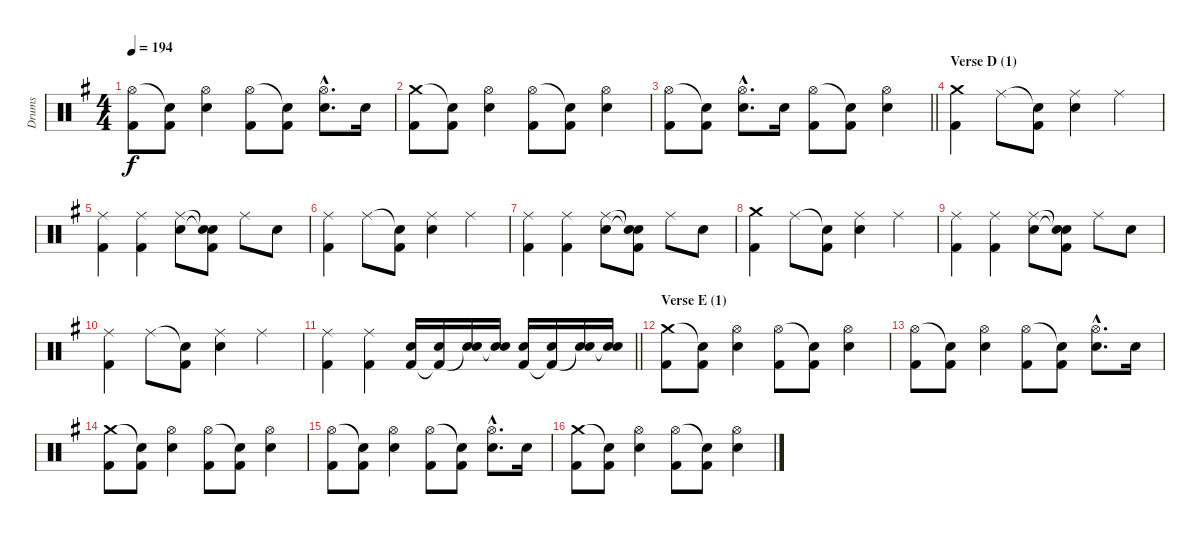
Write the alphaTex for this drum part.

\track ("Drums" "Drums") {instrument percussion}
\staff {score}
\articulation defaults
\ts (4 4)
\tempo 194
\clef neutral
\ks eminor
("Hi-Hat (open)" "Kick (hit) 2").8{dy f} ("Snare (hit)"{t} "Kick (hit) 2").8 ("Hi-Hat (open)" "Electric Snare (hit)").4 ("Hi-Hat (open)" "Kick (hit) 2").8 ("Snare (hit)"{t} "Kick (hit) 2").8 ("Hi-Hat (open)"{hac} "Electric Snare (hit)"{hac}).8{d} "Electric Snare (hit)".16 |
("Crash medium (hit)" "Kick (hit) 2").8 ("Snare (hit)"{t} "Kick (hit) 2").8 ("Hi-Hat (open)" "Electric Snare (hit)").4 ("Hi-Hat (open)" "Kick (hit) 2").8 ("Snare (hit)"{t} "Kick (hit) 2").8 ("Hi-Hat (open)" "Electric Snare (hit)").4 |
\barLineRight lightlight
("Hi-Hat (open)" "Kick (hit) 2").8 ("Snare (hit)"{t} "Kick (hit) 2").8 ("Hi-Hat (open)"{hac} "Electric Snare (hit)"{hac}).8{d} "Electric Snare (hit)".16 ("Hi-Hat (open)" "Kick (hit) 2").8 ("Snare (hit)"{t} "Kick (hit) 2").8 ("Hi-Hat (open)" "Electric Snare (hit)").4 |
\section ("" "Verse D (1)")
("Crash medium (hit)" "Kick (hit) 2").4 "Ride (middle)".8 ("Snare (hit)"{t} "Kick (hit) 2").8 ("Ride (middle)" "Electric Snare (hit)").4 "Ride (middle)".4 |
("Ride (middle)" "Kick (hit) 2").4 ("Ride (middle)" "Kick (hit) 2").4 ("Ride (middle)" "Electric Snare (hit)").8 ("Snare (hit)"{t} "Snare (hit)"{t} "Kick (hit) 2").8 "Ride (middle)".8 "Electric Snare (hit)".8 |
("Ride (middle)" "Kick (hit) 2").4 "Ride (middle)".8 ("Snare (hit)"{t} "Kick (hit) 2").8 ("Ride (middle)" "Electric Snare (hit)").4 "Ride (middle)".4 |
("Ride (middle)" "Kick (hit) 2").4 ("Ride (middle)" "Kick (hit) 2").4 ("Ride (middle)" "Electric Snare (hit)").8 ("Snare (hit)"{t} "Snare (hit)"{t} "Kick (hit) 2").8 "Ride (middle)".8 "Electric Snare (hit)".8 |
("Crash medium (hit)" "Kick (hit) 2").4 "Ride (middle)".8 ("Snare (hit)"{t} "Kick (hit) 2").8 ("Ride (middle)" "Electric Snare (hit)").4 "Ride (middle)".4 |
("Ride (middle)" "Kick (hit) 2").4 ("Ride (middle)" "Kick (hit) 2").4 ("Ride (middle)" "Electric Snare (hit)").8 ("Snare (hit)"{t} "Snare (hit)"{t} "Kick (hit) 2").8 "Ride (middle)".8 "Electric Snare (hit)".8 |
("Ride (middle)" "Kick (hit) 2").4 "Ride (middle)".8 ("Snare (hit)"{t} "Kick (hit) 2").8 ("Ride (middle)" "Electric Snare (hit)").4 "Ride (middle)".4 |
\barLineRight lightlight
("Ride (middle)" "Kick (hit) 2").4 ("Ride (middle)" "Kick (hit) 2").4 ("Electric Snare (hit)" "Kick (hit) 2").16 ("Electric Snare (hit)" "Kick (hit) 2"{t}).16 ("Electric Snare (hit)" "Snare (hit)"{t}).16 ("Electric Snare (hit)" "Snare (hit)"{t}).16 ("Electric Snare (hit)" "Kick (hit) 2").16 ("Electric Snare (hit)" "Kick (hit) 2"{t}).16 ("Electric Snare (hit)" "Snare (hit)"{t}).16 ("Electric Snare (hit)" "Snare (hit)"{t}).16 |
\section ("" "Verse E (1)")
("Crash medium (hit)" "Kick (hit) 2").8 ("Snare (hit)"{t} "Kick (hit) 2").8 ("Hi-Hat (open)" "Electric Snare (hit)").4 ("Hi-Hat (open)" "Kick (hit) 2").8 ("Snare (hit)"{t} "Kick (hit) 2").8 ("Hi-Hat (open)" "Electric Snare (hit)").4 |
("Hi-Hat (open)" "Kick (hit) 2").8 ("Snare (hit)"{t} "Kick (hit) 2").8 ("Hi-Hat (open)" "Electric Snare (hit)").4 ("Hi-Hat (open)" "Kick (hit) 2").8 ("Snare (hit)"{t} "Kick (hit) 2").8 ("Hi-Hat (open)"{hac} "Electric Snare (hit)"{hac}).8{d} "Electric Snare (hit)".16 |
("Crash medium (hit)" "Kick (hit) 2").8 ("Snare (hit)"{t} "Kick (hit) 2").8 ("Hi-Hat (open)" "Electric Snare (hit)").4 ("Hi-Hat (open)" "Kick (hit) 2").8 ("Snare (hit)"{t} "Kick (hit) 2").8 ("Hi-Hat (open)" "Electric Snare (hit)").4 |
("Hi-Hat (open)" "Kick (hit) 2").8 ("Snare (hit)"{t} "Kick (hit) 2").8 ("Hi-Hat (open)" "Electric Snare (hit)").4 ("Hi-Hat (open)" "Kick (hit) 2").8 ("Snare (hit)"{t} "Kick (hit) 2").8 ("Hi-Hat (open)"{hac} "Electric Snare (hit)"{hac}).8{d} "Electric Snare (hit)".16 |
("Crash medium (hit)" "Kick (hit) 2").8 ("Snare (hit)"{t} "Kick (hit) 2").8 ("Hi-Hat (open)" "Electric Snare (hit)").4 ("Hi-Hat (open)" "Kick (hit) 2").8 ("Snare (hit)"{t} "Kick (hit) 2").8 ("Hi-Hat (open)" "Electric Snare (hit)").4
